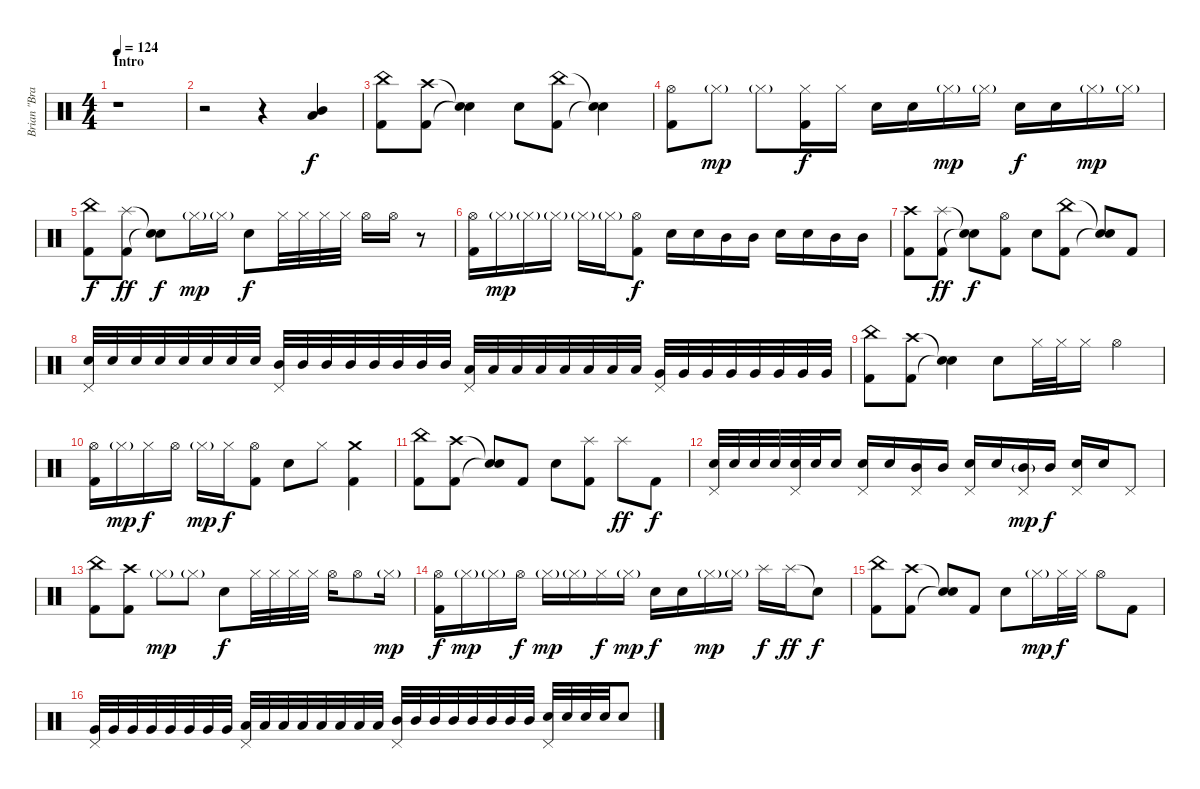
\track ("Brian \"Brain\" Mantia / Drums" "Brian \"Bra") {instrument percussion}
\staff {score}
\articulation defaults
\ts (4 4)
\section ("" "Intro")
\tempo 124
\clef neutral
\ks c
r.1{dy f} |
r.2 r.4 ("Mid Tom (hit)" "Low Tom (hit)").4 |
("China (hit)" "Kick (hit) 2").8 ("Crash high (hit)" "Kick (hit) 2").8 ("Snare (hit)"{t} "Snare (hit)"{t}).4 "Electric Snare (hit)".8 ("China (hit)" "Kick (hit) 2").8 ("Snare (hit)"{t} "Snare (hit)"{t}).4 |
("Hi-Hat (open)" "Kick (hit) 2").8 "Hi-Hat (closed)"{g}.8{dy mp} "Hi-Hat (closed)"{g}.8 ("Hi-Hat (closed)" "Kick (hit) 2").16{dy f} "Hi-Hat (closed)".16 "Electric Snare (hit)".16 "Electric Snare (hit)".16 "Hi-Hat (closed)"{g}.16{dy mp} "Hi-Hat (closed)"{g}.16 "Electric Snare (hit)".16{dy f} "Electric Snare (hit)".16 "Hi-Hat (closed)"{g}.16{dy mp} "Hi-Hat (closed)"{g}.16 |
("China (hit)" "Kick (hit) 2").8{dy f} ("Splash (hit)" "Kick (hit) 2").8{dy ff} ("Snare (hit)"{t} "Snare (hit)"{t}).8{dy f} "Hi-Hat (closed)"{g}.16{dy mp} "Hi-Hat (closed)"{g}.16 "Electric Snare (hit)".8{dy f} "Hi-Hat (closed)".32 "Hi-Hat (closed)".32 "Hi-Hat (closed)".32 "Hi-Hat (closed)".32 "Hi-Hat (open)".16 "Hi-Hat (open)".16 r.8 |
("Hi-Hat (open)" "Kick (hit) 2").16 "Hi-Hat (closed)"{g}.16{dy mp} "Hi-Hat (closed)"{g}.16 "Hi-Hat (closed)"{g}.16 "Hi-Hat (closed)"{g}.16 "Hi-Hat (closed)"{g}.16 ("Hi-Hat (open)" "Kick (hit) 2").8{dy f} "Electric Snare (hit)".16 "Electric Snare (hit)".16 "Mid Tom (hit)".16 "Mid Tom (hit)".16 "Electric Snare (hit)".16 "Electric Snare (hit)".16 "Mid Tom (hit)".16 "Mid Tom (hit)".16 |
("Crash high (hit)" "Kick (hit) 2").8 ("Splash (hit)" "Kick (hit) 2").8{dy ff} ("Snare (hit)"{t} "Snare (hit)"{t}).8{dy f} ("Hi-Hat (open)" "Kick (hit) 2").8 "Electric Snare (hit)".8 ("China (hit)" "Kick (hit) 2").8 ("Snare (hit)"{t} "Snare (hit)"{t}).8 "Kick (hit) 2".8 |
("Pedal Hi-Hat (hit)" "Electric Snare (hit)").32 "Electric Snare (hit)".32 "Electric Snare (hit)".32 "Electric Snare (hit)".32 "Electric Snare (hit)".32 "Electric Snare (hit)".32 "Electric Snare (hit)".32 "Electric Snare (hit)".32 ("Pedal Hi-Hat (hit)" "Mid Tom (hit)").32 "Mid Tom (hit)".32 "Mid Tom (hit)".32 "Mid Tom (hit)".32 "Mid Tom (hit)".32 "Mid Tom (hit)".32 "Mid Tom (hit)".32 "Mid Tom (hit)".32 ("Pedal Hi-Hat (hit)" "Low Tom (hit)").32 "Low Tom (hit)".32 "Low Tom (hit)".32 "Low Tom (hit)".32 "Low Tom (hit)".32 "Low Tom (hit)".32 "Low Tom (hit)".32 "Low Tom (hit)".32 ("Pedal Hi-Hat (hit)" "Very Low Tom (hit)").32 "Very Low Tom (hit)".32 "Very Low Tom (hit)".32 "Very Low Tom (hit)".32 "Very Low Tom (hit)".32 "Very Low Tom (hit)".32 "Very Low Tom (hit)".32 "Very Low Tom (hit)".32 |
("China (hit)" "Kick (hit) 2").8 ("Crash high (hit)" "Kick (hit) 2").8 ("Snare (hit)"{t} "Snare (hit)"{t}).4 "Electric Snare (hit)".8 "Hi-Hat (closed)".32 "Hi-Hat (closed)".32 "Hi-Hat (closed)".16 "Hi-Hat (open)".4 |
("Hi-Hat (open)" "Kick (hit) 2").16 "Hi-Hat (closed)"{g}.16{dy mp} "Hi-Hat (closed)".16{dy f} "Hi-Hat (open)".16 "Hi-Hat (closed)"{g}.16{dy mp} "Hi-Hat (closed)".16{dy f} ("Hi-Hat (open)" "Kick (hit) 2").8 "Electric Snare (hit)".8 "Hi-Hat (closed)".8 ("Crash medium (hit)" "Kick (hit) 2").4 |
("China (hit)" "Kick (hit) 2").8 ("Crash high (hit)" "Kick (hit) 2").8 ("Snare (hit)"{t} "Snare (hit)"{t}).8 "Kick (hit) 2".8 "Electric Snare (hit)".8 ("Splash (hit)" "Kick (hit) 2").8 "Splash (hit)".8{dy ff} "Kick (hit) 2".8{dy f} |
("Pedal Hi-Hat (hit)" "Electric Snare (hit)").32 "Electric Snare (hit)".32 "Electric Snare (hit)".32 "Electric Snare (hit)".32 ("Pedal Hi-Hat (hit)" "Electric Snare (hit)").32 "Electric Snare (hit)".32 "Electric Snare (hit)".16 ("Pedal Hi-Hat (hit)" "Electric Snare (hit)").16 "Electric Snare (hit)".16 ("Pedal Hi-Hat (hit)" "Mid Tom (hit)").16 "Mid Tom (hit)".16 ("Pedal Hi-Hat (hit)" "Electric Snare (hit)").16 "Electric Snare (hit)".16 ("Pedal Hi-Hat (hit)" "Mid Tom (hit)"{g}).16{dy mp} "Mid Tom (hit)".16{dy f} ("Pedal Hi-Hat (hit)" "Electric Snare (hit)").16 "Electric Snare (hit)".16 "Pedal Hi-Hat (hit)".8 |
("China (hit)" "Kick (hit) 2").8 ("Crash high (hit)" "Kick (hit) 2").8 "Hi-Hat (closed)"{g}.8{dy mp} "Hi-Hat (closed)"{g}.8 "Electric Snare (hit)".8{dy f} "Hi-Hat (closed)".32 "Hi-Hat (closed)".32 "Hi-Hat (closed)".32 "Hi-Hat (closed)".32 "Hi-Hat (open)".16 "Hi-Hat (open)".8 "Hi-Hat (closed)"{g}.16{dy mp} |
("Hi-Hat (open)" "Kick (hit) 2").16{dy f} "Hi-Hat (closed)"{g}.16{dy mp} "Hi-Hat (closed)"{g}.16 "Hi-Hat (open)".16{dy f} "Hi-Hat (closed)"{g}.16{dy mp} "Hi-Hat (closed)"{g}.16 "Hi-Hat (closed)".16{dy f} "Hi-Hat (closed)"{g}.16{dy mp} "Electric Snare (hit)".16{dy f} "Electric Snare (hit)".16 "Hi-Hat (closed)"{g}.16{dy mp} "Hi-Hat (closed)"{g}.16 "Splash (hit)".16{dy f} "Splash (hit)".16{dy ff} "Snare (hit)"{t}.8{dy f} |
("China (hit)" "Kick (hit) 2").8 ("Crash high (hit)" "Kick (hit) 2").8 ("Snare (hit)"{t} "Snare (hit)"{t}).8 "Kick (hit) 2".8 "Electric Snare (hit)".8 "Hi-Hat (closed)"{g}.16{dy mp} "Hi-Hat (closed)".32{dy f} "Hi-Hat (closed)".32 "Hi-Hat (open)".8 "Kick (hit) 2".8 |
("Pedal Hi-Hat (hit)" "Very Low Tom (hit)").32 "Very Low Tom (hit)".32 "Very Low Tom (hit)".32 "Very Low Tom (hit)".32 "Very Low Tom (hit)".32 "Very Low Tom (hit)".32 "Very Low Tom (hit)".32 "Very Low Tom (hit)".32 ("Pedal Hi-Hat (hit)" "Low Tom (hit)").32 "Low Tom (hit)".32 "Low Tom (hit)".32 "Low Tom (hit)".32 "Low Tom (hit)".32 "Low Tom (hit)".32 "Low Tom (hit)".32 "Low Tom (hit)".32 ("Pedal Hi-Hat (hit)" "Mid Tom (hit)").32 "Mid Tom (hit)".32 "Mid Tom (hit)".32 "Mid Tom (hit)".32 "Mid Tom (hit)".32 "Mid Tom (hit)".32 "Mid Tom (hit)".32 "Mid Tom (hit)".32 ("Pedal Hi-Hat (hit)" "Electric Snare (hit)").32 "Electric Snare (hit)".32 "Electric Snare (hit)".32 "Electric Snare (hit)".32 "Electric Snare (hit)".8
